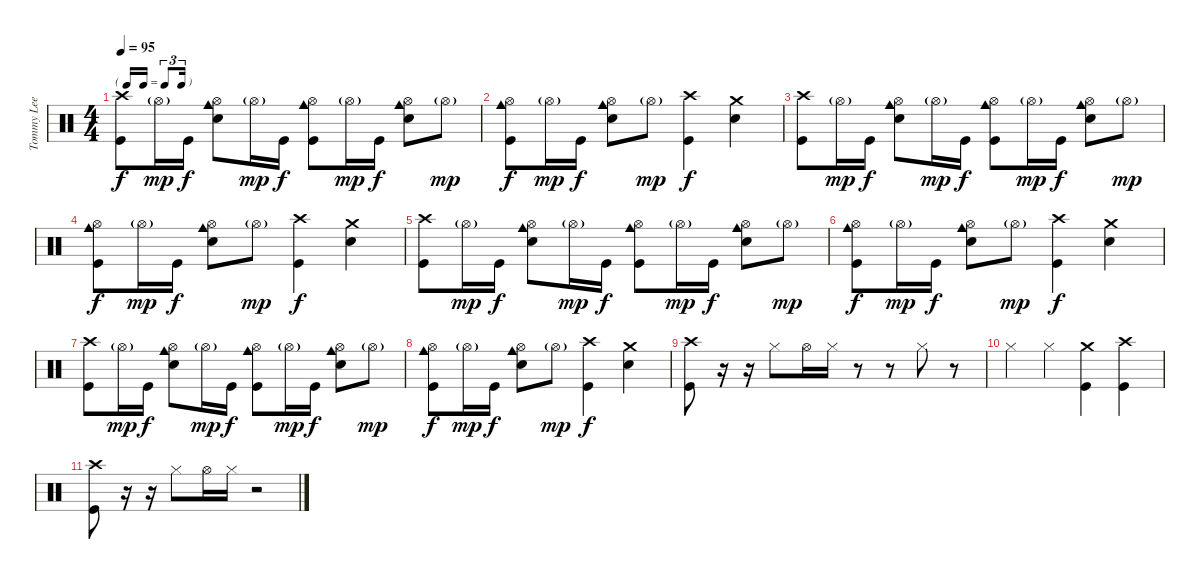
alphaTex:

\track ("Tommy Lee" "Tommy Lee") {instrument percussion}
\staff {score}
\articulation defaults
\ts (4 4)
\tf triplet16th
\tempo 95
\clef neutral
\ks c
("Crash high (hit)" "Kick (hit)").8{dy f} "Hi-Hat (open)"{g}.16{dy mp} "Kick (hit)".16{dy f} ("Hi-Hat (open)" "Cowbell medium (hit)" "Snare (hit) 2").8 "Hi-Hat (open)"{g}.16{dy mp} "Kick (hit)".16{dy f} ("Hi-Hat (open)" "Cowbell medium (hit)" "Kick (hit)").8 "Hi-Hat (open)"{g}.16{dy mp} "Kick (hit)".16{dy f} ("Hi-Hat (open)" "Cowbell medium (hit)" "Snare (hit) 2").8 "Hi-Hat (open)"{g}.8{dy mp} |
("Hi-Hat (open)" "Cowbell medium (hit)" "Kick (hit)").8{dy f} "Hi-Hat (open)"{g}.16{dy mp} "Kick (hit)".16{dy f} ("Hi-Hat (open)" "Cowbell medium (hit)" "Snare (hit) 2").8 "Hi-Hat (open)"{g}.8{dy mp} ("Crash high (hit)" "Kick (hit)").4{dy f} ("Crash medium (hit)" "Snare (hit) 2").4 |
("Crash high (hit)" "Kick (hit)").8 "Hi-Hat (open)"{g}.16{dy mp} "Kick (hit)".16{dy f} ("Hi-Hat (open)" "Cowbell medium (hit)" "Snare (hit) 2").8 "Hi-Hat (open)"{g}.16{dy mp} "Kick (hit)".16{dy f} ("Hi-Hat (open)" "Cowbell medium (hit)" "Kick (hit)").8 "Hi-Hat (open)"{g}.16{dy mp} "Kick (hit)".16{dy f} ("Hi-Hat (open)" "Cowbell medium (hit)" "Snare (hit) 2").8 "Hi-Hat (open)"{g}.8{dy mp} |
("Hi-Hat (open)" "Cowbell medium (hit)" "Kick (hit)").8{dy f} "Hi-Hat (open)"{g}.16{dy mp} "Kick (hit)".16{dy f} ("Hi-Hat (open)" "Cowbell medium (hit)" "Snare (hit) 2").8 "Hi-Hat (open)"{g}.8{dy mp} ("Crash high (hit)" "Kick (hit)").4{dy f} ("Crash medium (hit)" "Snare (hit) 2").4 |
("Crash high (hit)" "Kick (hit)").8 "Hi-Hat (open)"{g}.16{dy mp} "Kick (hit)".16{dy f} ("Hi-Hat (open)" "Cowbell medium (hit)" "Snare (hit) 2").8 "Hi-Hat (open)"{g}.16{dy mp} "Kick (hit)".16{dy f} ("Hi-Hat (open)" "Cowbell medium (hit)" "Kick (hit)").8 "Hi-Hat (open)"{g}.16{dy mp} "Kick (hit)".16{dy f} ("Hi-Hat (open)" "Cowbell medium (hit)" "Snare (hit) 2").8 "Hi-Hat (open)"{g}.8{dy mp} |
("Hi-Hat (open)" "Cowbell medium (hit)" "Kick (hit)").8{dy f} "Hi-Hat (open)"{g}.16{dy mp} "Kick (hit)".16{dy f} ("Hi-Hat (open)" "Cowbell medium (hit)" "Snare (hit) 2").8 "Hi-Hat (open)"{g}.8{dy mp} ("Crash high (hit)" "Kick (hit)").4{dy f} ("Crash medium (hit)" "Snare (hit) 2").4 |
("Crash high (hit)" "Kick (hit)").8 "Hi-Hat (open)"{g}.16{dy mp} "Kick (hit)".16{dy f} ("Hi-Hat (open)" "Cowbell medium (hit)" "Snare (hit) 2").8 "Hi-Hat (open)"{g}.16{dy mp} "Kick (hit)".16{dy f} ("Hi-Hat (open)" "Cowbell medium (hit)" "Kick (hit)").8 "Hi-Hat (open)"{g}.16{dy mp} "Kick (hit)".16{dy f} ("Hi-Hat (open)" "Cowbell medium (hit)" "Snare (hit) 2").8 "Hi-Hat (open)"{g}.8{dy mp} |
("Hi-Hat (open)" "Cowbell medium (hit)" "Kick (hit)").8{dy f} "Hi-Hat (open)"{g}.16{dy mp} "Kick (hit)".16{dy f} ("Hi-Hat (open)" "Cowbell medium (hit)" "Snare (hit) 2").8 "Hi-Hat (open)"{g}.8{dy mp} ("Crash high (hit)" "Kick (hit)").4{dy f} ("Crash medium (hit)" "Snare (hit) 2").4 |
("Crash high (hit)" "Kick (hit)").8 r.16 r.16 "Hi-Hat (closed)".8 "Hi-Hat (open)".16 "Hi-Hat (closed)".16 r.8 r.8 "Hi-Hat (closed)".8 r.8 |
"Hi-Hat (closed)".4 "Hi-Hat (closed)".4 ("Crash medium (hit)" "Kick (hit)").4 ("Crash high (hit)" "Kick (hit)").4 |
("Crash high (hit)" "Kick (hit)").8 r.16 r.16 "Hi-Hat (closed)".8 "Hi-Hat (open)".16 "Hi-Hat (closed)".16 r.2
